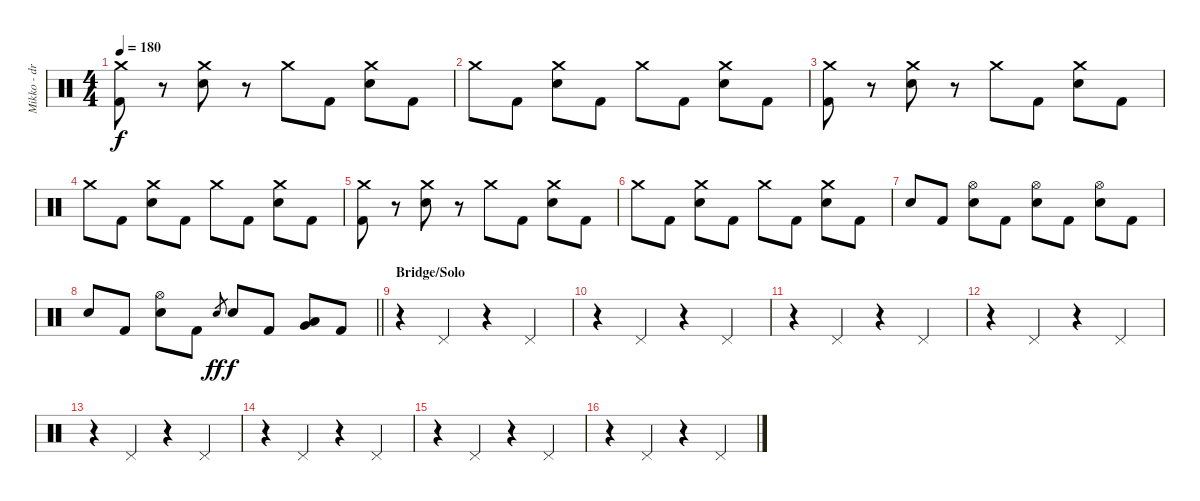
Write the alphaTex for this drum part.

\track ("Mikko - drums" "Mikko - dr") {instrument percussion}
\staff {score}
\articulation defaults
\ts (4 4)
\tempo 180
\clef neutral
\ks c
("Crash medium (hit)" "Kick (hit) 2").8{dy f} r.8 ("Crash medium (hit)" "Snare (hit) 2").8 r.8 "Crash medium (hit)".8 "Kick (hit) 2".8 ("Crash medium (hit)" "Snare (hit) 2").8 "Kick (hit) 2".8 |
"Crash medium (hit)".8 "Kick (hit) 2".8 ("Crash medium (hit)" "Snare (hit) 2").8 "Kick (hit) 2".8 "Crash medium (hit)".8 "Kick (hit) 2".8 ("Crash medium (hit)" "Snare (hit) 2").8 "Kick (hit) 2".8 |
("Crash medium (hit)" "Kick (hit) 2").8 r.8 ("Crash medium (hit)" "Snare (hit) 2").8 r.8 "Crash medium (hit)".8 "Kick (hit) 2".8 ("Crash medium (hit)" "Snare (hit) 2").8 "Kick (hit) 2".8 |
"Crash medium (hit)".8 "Kick (hit) 2".8 ("Crash medium (hit)" "Snare (hit) 2").8 "Kick (hit) 2".8 "Crash medium (hit)".8 "Kick (hit) 2".8 ("Crash medium (hit)" "Snare (hit) 2").8 "Kick (hit) 2".8 |
("Crash medium (hit)" "Kick (hit) 2").8 r.8 ("Crash medium (hit)" "Snare (hit) 2").8 r.8 "Crash medium (hit)".8 "Kick (hit) 2".8 ("Crash medium (hit)" "Snare (hit) 2").8 "Kick (hit) 2".8 |
"Crash medium (hit)".8 "Kick (hit) 2".8 ("Crash medium (hit)" "Snare (hit) 2").8 "Kick (hit) 2".8 "Crash medium (hit)".8 "Kick (hit) 2".8 ("Crash medium (hit)" "Snare (hit) 2").8 "Kick (hit) 2".8 |
"Snare (hit) 2".8 "Kick (hit) 2".8 ("Hi-Hat (open)" "Snare (hit) 2").8 "Kick (hit) 2".8 ("Hi-Hat (open)" "Snare (hit) 2").8 "Kick (hit) 2".8 ("Hi-Hat (open)" "Snare (hit) 2").8 "Kick (hit) 2".8 |
\barLineRight lightlight "Snare (hit) 2".8 "Kick (hit) 2".8
("Hi-Hat (open)" "Snare (hit) 2").8 "Kick (hit) 2".8 "Snare (hit) 2".8{gr dy ff} "Snare (hit) 2".8{dy f} "Kick (hit) 2".8 ("Low Tom (hit)" "Very Low Tom (hit)").8 "Kick (hit) 2".8 |
\section ("" "Bridge/Solo")
r.4 "Pedal Hi-Hat (hit)".4 r.4 "Pedal Hi-Hat (hit)".4 |
r.4 "Pedal Hi-Hat (hit)".4 r.4 "Pedal Hi-Hat (hit)".4 |
r.4 "Pedal Hi-Hat (hit)".4 r.4 "Pedal Hi-Hat (hit)".4 |
r.4 "Pedal Hi-Hat (hit)".4 r.4 "Pedal Hi-Hat (hit)".4 |
r.4 "Pedal Hi-Hat (hit)".4 r.4 "Pedal Hi-Hat (hit)".4 |
r.4 "Pedal Hi-Hat (hit)".4 r.4 "Pedal Hi-Hat (hit)".4 |
r.4 "Pedal Hi-Hat (hit)".4 r.4 "Pedal Hi-Hat (hit)".4 |
r.4 "Pedal Hi-Hat (hit)".4 r.4 "Pedal Hi-Hat (hit)".4
